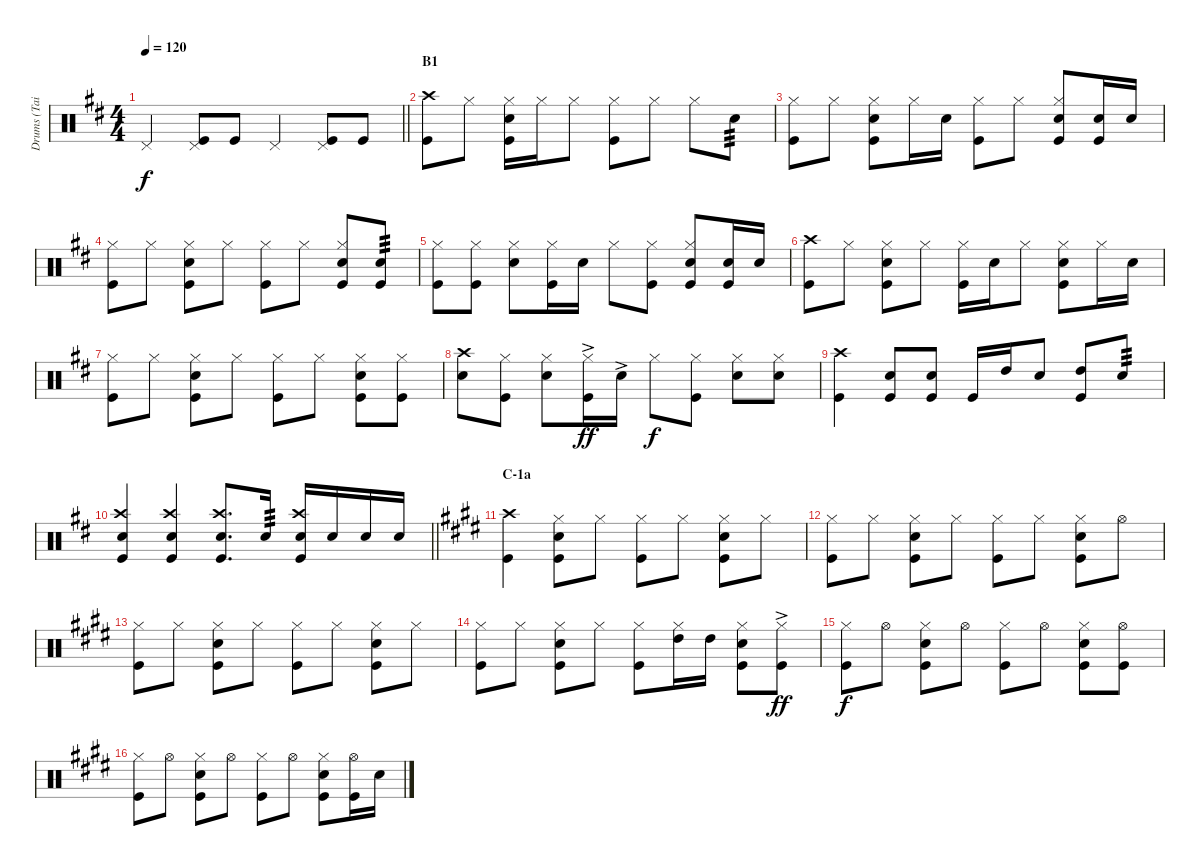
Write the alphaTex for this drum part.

\track ("Drums (Tainaka Ritsu)" "Drums (Tai") {instrument percussion}
\staff {score}
\articulation defaults
\ts (4 4)
\tempo 120
\clef neutral
\barLineRight lightlight
\ks d "Pedal Hi-Hat (hit)".4{dy f}
("Pedal Hi-Hat (hit)" "Kick (hit)").8 "Kick (hit)".8 "Pedal Hi-Hat (hit)".4 ("Pedal Hi-Hat (hit)" "Kick (hit)").8 "Kick (hit)".8 |
\section ("" "B1")
("Crash high (hit)" "Kick (hit)").8 "Hi-Hat (closed)".8 ("Hi-Hat (closed)" "Snare (hit) 2" "Kick (hit)").16 "Hi-Hat (closed)".16 "Hi-Hat (closed)".8 ("Hi-Hat (closed)" "Kick (hit)").8 "Hi-Hat (closed)".8 "Hi-Hat (closed)".8 "Snare (hit) 2".8{tp 3} |
("Hi-Hat (closed)" "Kick (hit)").8 "Hi-Hat (closed)".8 ("Hi-Hat (closed)" "Snare (hit) 2" "Kick (hit)").8 "Hi-Hat (closed)".16 "Snare (hit) 2".16 ("Hi-Hat (closed)" "Kick (hit)").8 "Hi-Hat (closed)".8 ("Hi-Hat (closed)" "Snare (hit) 2" "Kick (hit)").8 ("Snare (hit) 2" "Kick (hit)").16 "Snare (hit) 2".16 |
("Hi-Hat (closed)" "Kick (hit)").8 "Hi-Hat (closed)".8 ("Hi-Hat (closed)" "Snare (hit) 2" "Kick (hit)").8 "Hi-Hat (closed)".8 ("Hi-Hat (closed)" "Kick (hit)").8 "Hi-Hat (closed)".8 ("Hi-Hat (closed)" "Snare (hit) 2" "Kick (hit)").8 ("Snare (hit) 2" "Kick (hit)").8{tp 3} |
("Hi-Hat (closed)" "Kick (hit)").8 ("Hi-Hat (closed)" "Kick (hit)").8 ("Hi-Hat (closed)" "Snare (hit) 2").8 ("Hi-Hat (closed)" "Kick (hit)").16 "Snare (hit) 2".16 "Hi-Hat (closed)".8 ("Hi-Hat (closed)" "Kick (hit)").8 ("Hi-Hat (closed)" "Snare (hit) 2" "Kick (hit)").8 ("Snare (hit) 2" "Kick (hit)").16 "Snare (hit) 2".16 |
("Crash high (hit)" "Kick (hit)").8 "Hi-Hat (closed)".8 ("Hi-Hat (closed)" "Snare (hit) 2" "Kick (hit)").8 "Hi-Hat (closed)".8 ("Hi-Hat (closed)" "Kick (hit)").16 "Snare (hit) 2".16 "Hi-Hat (closed)".8 ("Hi-Hat (closed)" "Snare (hit) 2" "Kick (hit)").8 "Hi-Hat (closed)".16 "Snare (hit) 2".16 |
("Hi-Hat (closed)" "Kick (hit)").8 "Hi-Hat (closed)".8 ("Hi-Hat (closed)" "Snare (hit) 2" "Kick (hit)").8 "Hi-Hat (closed)".8 ("Hi-Hat (closed)" "Kick (hit)").8 "Hi-Hat (closed)".8 ("Hi-Hat (closed)" "Snare (hit) 2" "Kick (hit)").8 ("Hi-Hat (closed)" "Kick (hit)").8 |
("Crash high (hit)" "Snare (hit) 2").8 ("Hi-Hat (closed)" "Kick (hit)").8 ("Hi-Hat (closed)" "Snare (hit) 2").8 ("Hi-Hat (closed)"{ac} "Kick (hit)").16{dy ff} "Snare (hit) 2"{ac}.16 "Hi-Hat (closed)".8{dy f} ("Hi-Hat (closed)" "Kick (hit)").8 ("Hi-Hat (closed)" "Snare (hit) 2").8 ("Hi-Hat (closed)" "Snare (hit) 2").8 |
("Crash high (hit)" "Kick (hit)").4 ("Snare (hit) 2" "Kick (hit)").8 ("Snare (hit) 2" "Kick (hit)").8 "Kick (hit)".16 "High Tom (hit)".16 "Snare (hit) 2".8 ("High Tom (hit)" "Kick (hit)").8 "Snare (hit) 2".8{tp 3} |
\barLineRight lightlight
("Crash high (hit)" "Snare (hit) 2" "Kick (hit)").4 ("Crash high (hit)" "Snare (hit) 2" "Kick (hit)").4 ("Crash high (hit)" "Snare (hit) 2" "Kick (hit)").8{d} "Snare (hit) 2".16{tp 3} ("Crash high (hit)" "Snare (hit) 2" "Kick (hit)").16 "Snare (hit) 2".16 "Snare (hit) 2".16 "Snare (hit) 2".16 |
\section ("" "C-1a")
\ks e
("Crash high (hit)" "Kick (hit)").4 ("Hi-Hat (closed)" "Snare (hit) 2" "Kick (hit)").8 "Hi-Hat (closed)".8 ("Hi-Hat (closed)" "Kick (hit)").8 "Hi-Hat (closed)".8 ("Hi-Hat (closed)" "Snare (hit) 2" "Kick (hit)").8 "Hi-Hat (closed)".8 |
("Hi-Hat (closed)" "Kick (hit)").8 "Hi-Hat (closed)".8 ("Hi-Hat (closed)" "Snare (hit) 2" "Kick (hit)").8 "Hi-Hat (closed)".8 ("Hi-Hat (closed)" "Kick (hit)").8 "Hi-Hat (closed)".8 ("Hi-Hat (closed)" "Snare (hit) 2" "Kick (hit)").8 "Hi-Hat (open)".8 |
("Hi-Hat (closed)" "Kick (hit)").8 "Hi-Hat (closed)".8 ("Hi-Hat (closed)" "Snare (hit) 2" "Kick (hit)").8 "Hi-Hat (closed)".8 ("Hi-Hat (closed)" "Kick (hit)").8 "Hi-Hat (closed)".8 ("Hi-Hat (closed)" "Snare (hit) 2" "Kick (hit)").8 "Hi-Hat (closed)".8 |
("Hi-Hat (closed)" "Kick (hit)").8 "Hi-Hat (closed)".8 ("Hi-Hat (closed)" "Snare (hit) 2" "Kick (hit)").8 "Hi-Hat (closed)".8 ("Hi-Hat (closed)" "Kick (hit)").8 ("Hi-Hat (closed)" "High Tom (hit)").16 "High Tom (hit)".16 ("Hi-Hat (closed)" "Snare (hit) 2" "Kick (hit)").8 ("Hi-Hat (closed)"{ac} "Kick (hit)").8{dy ff} |
("Hi-Hat (closed)" "Kick (hit)").8{dy f} "Hi-Hat (open)".8 ("Hi-Hat (closed)" "Snare (hit) 2" "Kick (hit)").8 "Hi-Hat (open)".8 ("Hi-Hat (closed)" "Kick (hit)").8 "Hi-Hat (open)".8 ("Hi-Hat (closed)" "Snare (hit) 2" "Kick (hit)").8 ("Hi-Hat (open)" "Kick (hit)").8 |
("Hi-Hat (closed)" "Kick (hit)").8 "Hi-Hat (open)".8 ("Hi-Hat (closed)" "Snare (hit) 2" "Kick (hit)").8 "Hi-Hat (open)".8 ("Hi-Hat (closed)" "Kick (hit)").8 "Hi-Hat (open)".8 ("Hi-Hat (closed)" "Snare (hit) 2" "Kick (hit)").8 ("Hi-Hat (open)" "Kick (hit)").16 "Snare (hit) 2".16
